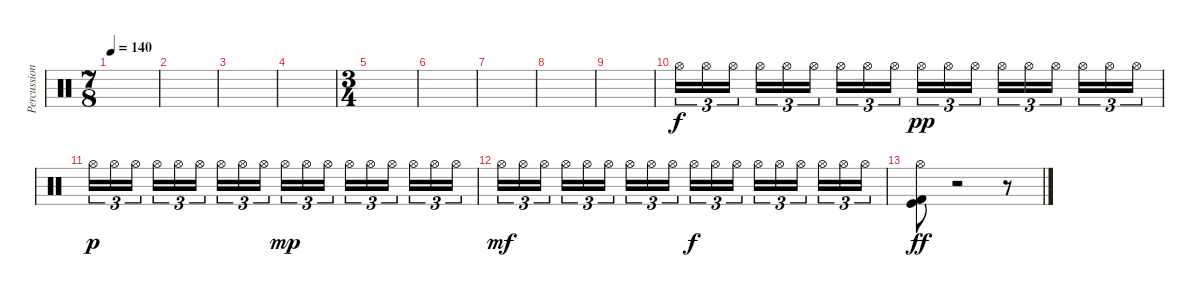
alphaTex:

\track ("Percussion" "Percussion") {instrument percussion}
\staff {score}
\articulation defaults
\ts (7 8)
\tempo 140
\clef neutral
\ks c
|
|
|
|
\ts (3 4)
|
|
|
|
|
"Hi-Hat (open)".16{tu (3 2)} "Hi-Hat (open)".16{tu (3 2)} "Hi-Hat (open)".16{tu (3 2)} "Hi-Hat (open)".16{tu (3 2)} "Hi-Hat (open)".16{tu (3 2)} "Hi-Hat (open)".16{tu (3 2)} "Hi-Hat (open)".16{tu (3 2)} "Hi-Hat (open)".16{tu (3 2)} "Hi-Hat (open)".16{tu (3 2)} "Hi-Hat (open)".16{tu (3 2) dy pp} "Hi-Hat (open)".16{tu (3 2)} "Hi-Hat (open)".16{tu (3 2)} "Hi-Hat (open)".16{tu (3 2)} "Hi-Hat (open)".16{tu (3 2)} "Hi-Hat (open)".16{tu (3 2)} "Hi-Hat (open)".16{tu (3 2)} "Hi-Hat (open)".16{tu (3 2)} "Hi-Hat (open)".16{tu (3 2)} |
"Hi-Hat (open)".16{tu (3 2) dy p} "Hi-Hat (open)".16{tu (3 2)} "Hi-Hat (open)".16{tu (3 2)} "Hi-Hat (open)".16{tu (3 2)} "Hi-Hat (open)".16{tu (3 2)} "Hi-Hat (open)".16{tu (3 2)} "Hi-Hat (open)".16{tu (3 2)} "Hi-Hat (open)".16{tu (3 2)} "Hi-Hat (open)".16{tu (3 2)} "Hi-Hat (open)".16{tu (3 2) dy mp} "Hi-Hat (open)".16{tu (3 2)} "Hi-Hat (open)".16{tu (3 2)} "Hi-Hat (open)".16{tu (3 2)} "Hi-Hat (open)".16{tu (3 2)} "Hi-Hat (open)".16{tu (3 2)} "Hi-Hat (open)".16{tu (3 2)} "Hi-Hat (open)".16{tu (3 2)} "Hi-Hat (open)".16{tu (3 2)} |
"Hi-Hat (open)".16{tu (3 2) dy mf} "Hi-Hat (open)".16{tu (3 2)} "Hi-Hat (open)".16{tu (3 2)} "Hi-Hat (open)".16{tu (3 2)} "Hi-Hat (open)".16{tu (3 2)} "Hi-Hat (open)".16{tu (3 2)} "Hi-Hat (open)".16{tu (3 2)} "Hi-Hat (open)".16{tu (3 2)} "Hi-Hat (open)".16{tu (3 2)} "Hi-Hat (open)".16{tu (3 2) dy f} "Hi-Hat (open)".16{tu (3 2)} "Hi-Hat (open)".16{tu (3 2)} "Hi-Hat (open)".16{tu (3 2)} "Hi-Hat (open)".16{tu (3 2)} "Hi-Hat (open)".16{tu (3 2)} "Hi-Hat (open)".16{tu (3 2)} "Hi-Hat (open)".16{tu (3 2)} "Hi-Hat (open)".16{tu (3 2)} |
("Hi-Hat (open)" "Kick (hit) 2" "Kick (hit)").8{dy ff} r.2 r.8
